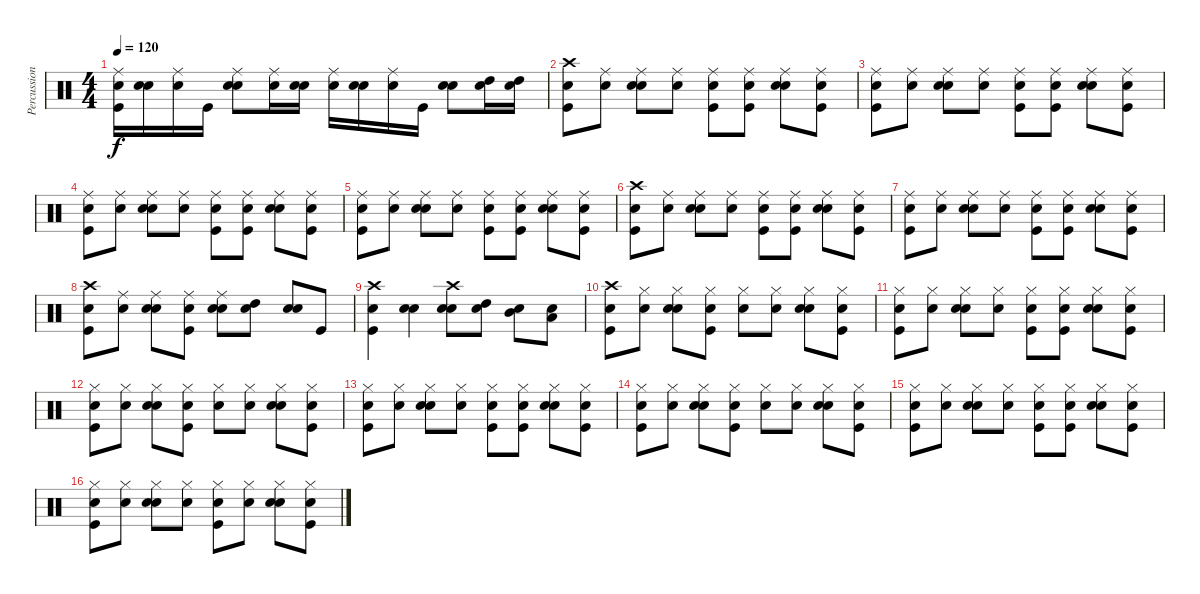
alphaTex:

\track ("Percussion" "Percussion") {instrument percussion}
\staff {score}
\articulation defaults
\ts (4 4)
\tempo 120
\clef neutral
\ks c
("Snare (hit)" "Kick (hit)" "Ride (middle)").16{dy f} ("Snare (hit)" "Electric Snare (hit)").16 ("Snare (hit)" "Ride (middle)").16 "Kick (hit)".16 ("Snare (hit)" "Electric Snare (hit)" "Ride (middle)").8 ("Snare (hit)" "Ride (middle)").16 ("Snare (hit)" "Electric Snare (hit)").16 ("Snare (hit)" "Ride (middle)").16 ("Snare (hit)" "Electric Snare (hit)").16 ("Snare (hit)" "Ride (middle)").16 "Kick (hit)".16 ("Snare (hit)" "Electric Snare (hit)").8 ("Snare (hit)" "High Tom (hit)").16 ("Snare (hit)" "High Tom (hit)").16 |
("Snare (hit)" "Kick (hit)" "Crash high (hit)").8 ("Snare (hit)" "Ride (middle)").8 ("Snare (hit)" "Electric Snare (hit)" "Ride (middle)").8 ("Snare (hit)" "Ride (middle)").8 ("Snare (hit)" "Kick (hit)" "Ride (middle)").8 ("Snare (hit)" "Kick (hit)" "Ride (middle)").8 ("Snare (hit)" "Electric Snare (hit)" "Ride (middle)").8 ("Snare (hit)" "Kick (hit)" "Ride (middle)").8 |
("Snare (hit)" "Kick (hit)" "Ride (middle)").8 ("Snare (hit)" "Ride (middle)").8 ("Snare (hit)" "Electric Snare (hit)" "Ride (middle)").8 ("Snare (hit)" "Ride (middle)").8 ("Snare (hit)" "Kick (hit)" "Ride (middle)").8 ("Snare (hit)" "Kick (hit)" "Ride (middle)").8 ("Snare (hit)" "Electric Snare (hit)" "Ride (middle)").8 ("Snare (hit)" "Kick (hit)" "Ride (middle)").8 |
("Snare (hit)" "Kick (hit)" "Ride (middle)").8 ("Snare (hit)" "Ride (middle)").8 ("Snare (hit)" "Electric Snare (hit)" "Ride (middle)").8 ("Snare (hit)" "Ride (middle)").8 ("Snare (hit)" "Kick (hit)" "Ride (middle)").8 ("Snare (hit)" "Kick (hit)" "Ride (middle)").8 ("Snare (hit)" "Electric Snare (hit)" "Ride (middle)").8 ("Snare (hit)" "Kick (hit)" "Ride (middle)").8 |
("Snare (hit)" "Kick (hit)" "Ride (middle)").8 ("Snare (hit)" "Ride (middle)").8 ("Snare (hit)" "Electric Snare (hit)" "Ride (middle)").8 ("Snare (hit)" "Ride (middle)").8 ("Snare (hit)" "Kick (hit)" "Ride (middle)").8 ("Snare (hit)" "Kick (hit)" "Ride (middle)").8 ("Snare (hit)" "Electric Snare (hit)" "Ride (middle)").8 ("Snare (hit)" "Kick (hit)" "Ride (middle)").8 |
("Snare (hit)" "Kick (hit)" "Crash high (hit)").8 ("Snare (hit)" "Ride (middle)").8 ("Snare (hit)" "Electric Snare (hit)" "Ride (middle)").8 ("Snare (hit)" "Ride (middle)").8 ("Snare (hit)" "Kick (hit)" "Ride (middle)").8 ("Snare (hit)" "Kick (hit)" "Ride (middle)").8 ("Snare (hit)" "Electric Snare (hit)" "Ride (middle)").8 ("Snare (hit)" "Kick (hit)" "Ride (middle)").8 |
("Snare (hit)" "Kick (hit)" "Ride (middle)").8 ("Snare (hit)" "Ride (middle)").8 ("Snare (hit)" "Electric Snare (hit)" "Ride (middle)").8 ("Snare (hit)" "Ride (middle)").8 ("Snare (hit)" "Kick (hit)" "Ride (middle)").8 ("Snare (hit)" "Kick (hit)" "Ride (middle)").8 ("Snare (hit)" "Electric Snare (hit)" "Ride (middle)").8 ("Snare (hit)" "Kick (hit)" "Ride (middle)").8 |
("Snare (hit)" "Kick (hit)" "Crash high (hit)").8 ("Snare (hit)" "Ride (middle)").8 ("Snare (hit)" "Electric Snare (hit)" "Ride (middle)").8 ("Snare (hit)" "Kick (hit)" "Ride (middle)").8 ("Snare (hit)" "Electric Snare (hit)" "Ride (middle)").8 ("Snare (hit)" "High Tom (hit)").8 ("Snare (hit)" "Electric Snare (hit)").8 "Kick (hit)".8 |
("Snare (hit)" "Kick (hit)" "Crash high (hit)").4 ("Snare (hit)" "Electric Snare (hit)").4 ("Snare (hit)" "Electric Snare (hit)" "Crash high (hit)").8 ("Snare (hit)" "High Tom (hit)").8 ("Snare (hit)" "Mid Tom (hit)").8 ("Snare (hit)" "Low Tom (hit)").8 |
("Snare (hit)" "Kick (hit)" "Crash high (hit)").8 ("Snare (hit)" "Hi-Hat (closed)").8 ("Snare (hit)" "Electric Snare (hit)" "Hi-Hat (closed)").8 ("Snare (hit)" "Kick (hit)" "Hi-Hat (closed)").8 ("Snare (hit)" "Hi-Hat (closed)").8 ("Snare (hit)" "Hi-Hat (closed)").8 ("Snare (hit)" "Electric Snare (hit)" "Hi-Hat (closed)").8 ("Snare (hit)" "Kick (hit)" "Hi-Hat (closed)").8 |
("Snare (hit)" "Kick (hit)" "Hi-Hat (closed)").8 ("Snare (hit)" "Hi-Hat (closed)").8 ("Snare (hit)" "Electric Snare (hit)" "Hi-Hat (closed)").8 ("Snare (hit)" "Hi-Hat (closed)").8 ("Snare (hit)" "Kick (hit)" "Hi-Hat (closed)").8 ("Snare (hit)" "Kick (hit)" "Hi-Hat (closed)").8 ("Snare (hit)" "Electric Snare (hit)" "Hi-Hat (closed)").8 ("Snare (hit)" "Kick (hit)" "Hi-Hat (closed)").8 |
("Snare (hit)" "Kick (hit)" "Hi-Hat (closed)").8 ("Snare (hit)" "Hi-Hat (closed)").8 ("Snare (hit)" "Electric Snare (hit)" "Hi-Hat (closed)").8 ("Snare (hit)" "Kick (hit)" "Hi-Hat (closed)").8 ("Snare (hit)" "Hi-Hat (closed)").8 ("Snare (hit)" "Hi-Hat (closed)").8 ("Snare (hit)" "Electric Snare (hit)" "Hi-Hat (closed)").8 ("Snare (hit)" "Kick (hit)" "Hi-Hat (closed)").8 |
("Snare (hit)" "Kick (hit)" "Hi-Hat (closed)").8 ("Snare (hit)" "Hi-Hat (closed)").8 ("Snare (hit)" "Electric Snare (hit)" "Hi-Hat (closed)").8 ("Snare (hit)" "Hi-Hat (closed)").8 ("Snare (hit)" "Kick (hit)" "Hi-Hat (closed)").8 ("Snare (hit)" "Kick (hit)" "Hi-Hat (closed)").8 ("Snare (hit)" "Electric Snare (hit)" "Hi-Hat (closed)").8 ("Snare (hit)" "Kick (hit)" "Hi-Hat (closed)").8 |
("Snare (hit)" "Kick (hit)" "Hi-Hat (closed)").8 ("Snare (hit)" "Hi-Hat (closed)").8 ("Snare (hit)" "Electric Snare (hit)" "Hi-Hat (closed)").8 ("Snare (hit)" "Kick (hit)" "Hi-Hat (closed)").8 ("Snare (hit)" "Hi-Hat (closed)").8 ("Snare (hit)" "Hi-Hat (closed)").8 ("Snare (hit)" "Electric Snare (hit)" "Hi-Hat (closed)").8 ("Snare (hit)" "Kick (hit)" "Hi-Hat (closed)").8 |
("Snare (hit)" "Kick (hit)" "Hi-Hat (closed)").8 ("Snare (hit)" "Hi-Hat (closed)").8 ("Snare (hit)" "Electric Snare (hit)" "Hi-Hat (closed)").8 ("Snare (hit)" "Hi-Hat (closed)").8 ("Snare (hit)" "Kick (hit)" "Hi-Hat (closed)").8 ("Snare (hit)" "Kick (hit)" "Hi-Hat (closed)").8 ("Snare (hit)" "Electric Snare (hit)" "Hi-Hat (closed)").8 ("Snare (hit)" "Kick (hit)" "Hi-Hat (closed)").8 |
("Snare (hit)" "Kick (hit)" "Hi-Hat (closed)").8 ("Snare (hit)" "Hi-Hat (closed)").8 ("Snare (hit)" "Electric Snare (hit)" "Hi-Hat (closed)").8 ("Snare (hit)" "Hi-Hat (closed)").8 ("Snare (hit)" "Kick (hit)" "Hi-Hat (closed)").8 ("Snare (hit)" "Hi-Hat (closed)").8 ("Snare (hit)" "Electric Snare (hit)" "Hi-Hat (closed)").8 ("Snare (hit)" "Kick (hit)" "Hi-Hat (closed)").8
